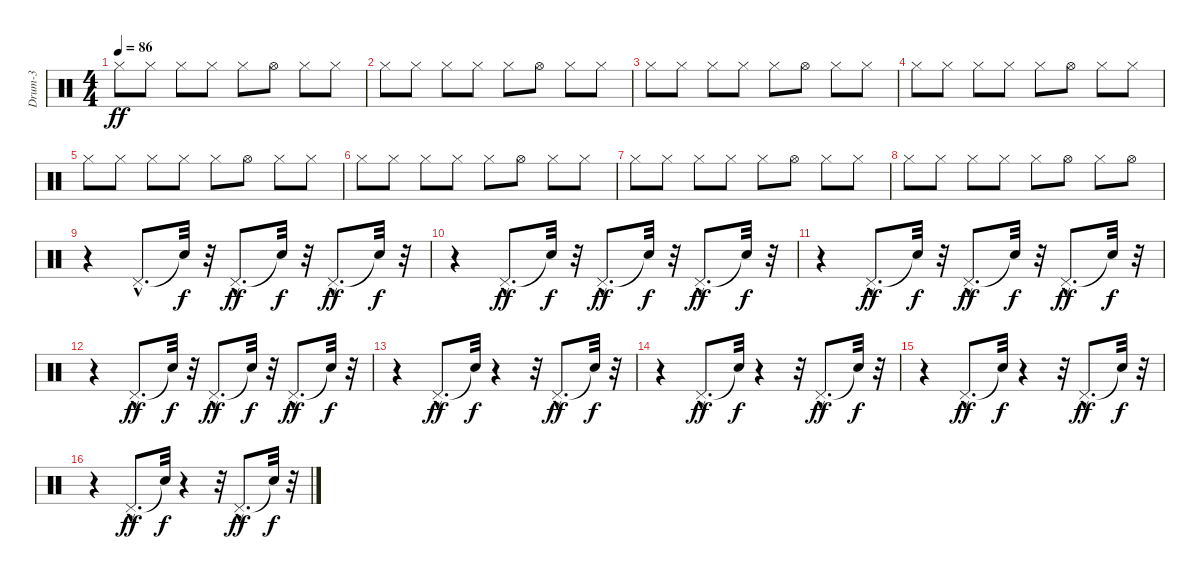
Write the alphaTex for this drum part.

\track ("Drum-3" "Drum-3") {instrument percussion}
\staff {score}
\articulation defaults
\ts (4 4)
\tempo 86
\clef neutral
\ks c "Hi-Hat (closed)".8{dy ff} "Hi-Hat (closed)".8 "Hi-Hat (closed)".8 "Hi-Hat (closed)".8 "Hi-Hat (closed)".8 "Hi-Hat (open)".8 "Hi-Hat (closed)".8 "Hi-Hat (closed)".8
|
"Hi-Hat (closed)".8 "Hi-Hat (closed)".8 "Hi-Hat (closed)".8 "Hi-Hat (closed)".8 "Hi-Hat (closed)".8 "Hi-Hat (open)".8 "Hi-Hat (closed)".8 "Hi-Hat (closed)".8 |
"Hi-Hat (closed)".8 "Hi-Hat (closed)".8 "Hi-Hat (closed)".8 "Hi-Hat (closed)".8 "Hi-Hat (closed)".8 "Hi-Hat (open)".8 "Hi-Hat (closed)".8 "Hi-Hat (closed)".8 |
"Hi-Hat (closed)".8 "Hi-Hat (closed)".8 "Hi-Hat (closed)".8 "Hi-Hat (closed)".8 "Hi-Hat (closed)".8 "Hi-Hat (open)".8 "Hi-Hat (closed)".8 "Hi-Hat (closed)".8 |
"Hi-Hat (closed)".8 "Hi-Hat (closed)".8 "Hi-Hat (closed)".8 "Hi-Hat (closed)".8 "Hi-Hat (closed)".8 "Hi-Hat (open)".8 "Hi-Hat (closed)".8 "Hi-Hat (closed)".8 |
"Hi-Hat (closed)".8 "Hi-Hat (closed)".8 "Hi-Hat (closed)".8 "Hi-Hat (closed)".8 "Hi-Hat (closed)".8 "Hi-Hat (open)".8 "Hi-Hat (closed)".8 "Hi-Hat (closed)".8 |
"Hi-Hat (closed)".8 "Hi-Hat (closed)".8 "Hi-Hat (closed)".8 "Hi-Hat (closed)".8 "Hi-Hat (closed)".8 "Hi-Hat (open)".8 "Hi-Hat (closed)".8 "Hi-Hat (closed)".8 |
"Hi-Hat (closed)".8 "Hi-Hat (closed)".8 "Hi-Hat (closed)".8 "Hi-Hat (closed)".8 "Hi-Hat (closed)".8 "Hi-Hat (open)".8 "Hi-Hat (closed)".8 "Hi-Hat (open)".8 |
r.4 "Pedal Hi-Hat (hit)"{hac}.8{d} "Snare (hit)"{t}.32{dy f} r.32 "Pedal Hi-Hat (hit)"{hac}.8{d dy ff} "Snare (hit)"{t}.32{dy f} r.32 "Pedal Hi-Hat (hit)"{hac}.8{d dy ff} "Snare (hit)"{t}.32{dy f} r.32 |
r.4 "Pedal Hi-Hat (hit)"{hac}.8{d dy ff} "Snare (hit)"{t}.32{dy f} r.32 "Pedal Hi-Hat (hit)"{hac}.8{d dy ff} "Snare (hit)"{t}.32{dy f} r.32 "Pedal Hi-Hat (hit)"{hac}.8{d dy ff} "Snare (hit)"{t}.32{dy f} r.32 |
r.4 "Pedal Hi-Hat (hit)"{hac}.8{d dy ff} "Snare (hit)"{t}.32{dy f} r.32 "Pedal Hi-Hat (hit)"{hac}.8{d dy ff} "Snare (hit)"{t}.32{dy f} r.32 "Pedal Hi-Hat (hit)"{hac}.8{d dy ff} "Snare (hit)"{t}.32{dy f} r.32 |
r.4 "Pedal Hi-Hat (hit)"{hac}.8{d dy ff} "Snare (hit)"{t}.32{dy f} r.32 "Pedal Hi-Hat (hit)"{hac}.8{d dy ff} "Snare (hit)"{t}.32{dy f} r.32 "Pedal Hi-Hat (hit)"{hac}.8{d dy ff} "Snare (hit)"{t}.32{dy f} r.32 |
r.4 "Pedal Hi-Hat (hit)"{hac}.8{d dy ff} "Snare (hit)"{t}.32{dy f} r.4 r.32 "Pedal Hi-Hat (hit)"{hac}.8{d dy ff} "Snare (hit)"{t}.32{dy f} r.32 |
r.4 "Pedal Hi-Hat (hit)"{hac}.8{d dy ff} "Snare (hit)"{t}.32{dy f} r.4 r.32 "Pedal Hi-Hat (hit)"{hac}.8{d dy ff} "Snare (hit)"{t}.32{dy f} r.32 |
r.4 "Pedal Hi-Hat (hit)"{hac}.8{d dy ff} "Snare (hit)"{t}.32{dy f} r.4 r.32 "Pedal Hi-Hat (hit)"{hac}.8{d dy ff} "Snare (hit)"{t}.32{dy f} r.32 |
r.4 "Pedal Hi-Hat (hit)"{hac}.8{d dy ff} "Snare (hit)"{t}.32{dy f} r.4 r.32 "Pedal Hi-Hat (hit)"{hac}.8{d dy ff} "Snare (hit)"{t}.32{dy f} r.32
